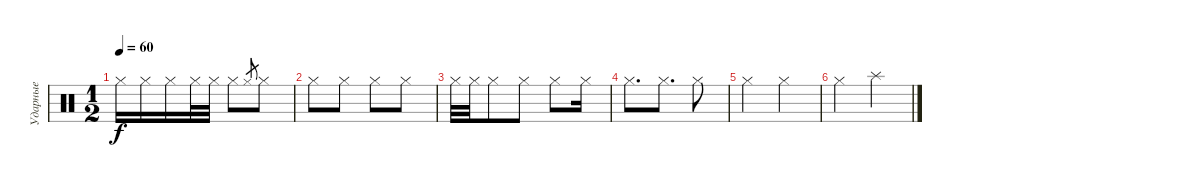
\track ("Ударные" "Ударные") {instrument percussion}
\staff {score}
\articulation defaults
\ts (1 2)
\tempo 60
\clef neutral
\ks c "Hi-Hat (closed)".16{dy f} "Hi-Hat (closed)".16 "Hi-Hat (closed)".16 "Hi-Hat (closed)".32 "Hi-Hat (closed)".32 "Hi-Hat (closed)".8 "Hi-Hat (closed)".8{gr} "Hi-Hat (closed)".8
|
"Hi-Hat (closed)".8 "Hi-Hat (closed)".8 "Hi-Hat (closed)".8 "Hi-Hat (closed)".8 |
"Hi-Hat (closed)".32 "Hi-Hat (closed)".32 "Hi-Hat (closed)".8 "Hi-Hat (closed)".8 "Hi-Hat (closed)".8 "Hi-Hat (closed)".16 |
"Hi-Hat (closed)".8{d} "Hi-Hat (closed)".8{d} "Hi-Hat (closed)".8 |
"Hi-Hat (closed)".4 "Hi-Hat (closed)".4 |
"Hi-Hat (closed)".4 "Splash (hit)".4
